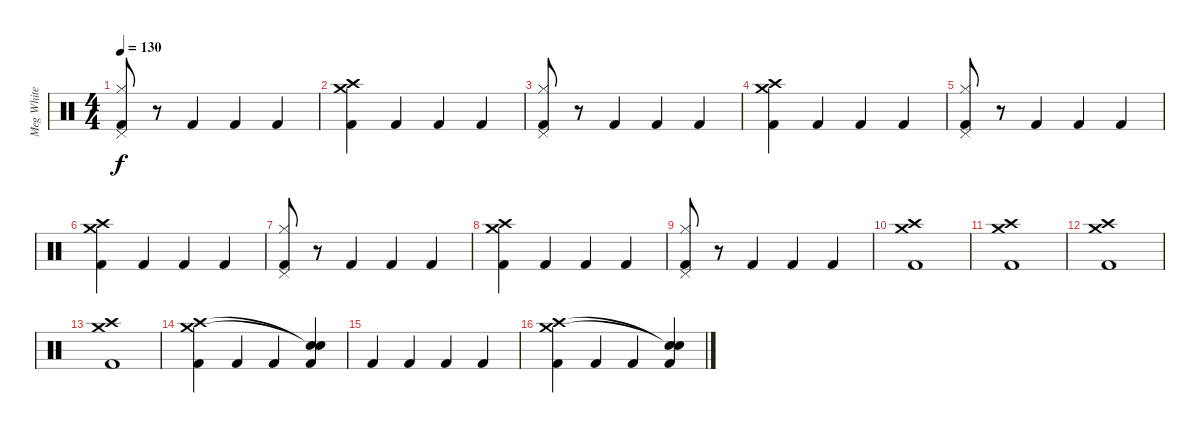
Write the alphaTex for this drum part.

\track ("Meg White" "Meg White") {instrument percussion}
\staff {score}
\articulation defaults
\ts (4 4)
\tempo 130
\clef neutral
\ks c
("Kick (hit) 2" "Hi-Hat (closed)" "Pedal Hi-Hat (hit)").8{dy f} r.8 "Kick (hit) 2".4 "Kick (hit) 2".4 "Kick (hit) 2".4 |
("Kick (hit) 2" "Crash high (hit)" "Crash medium (hit)").4 "Kick (hit) 2".4 "Kick (hit) 2".4 "Kick (hit) 2".4 |
("Kick (hit) 2" "Hi-Hat (closed)" "Pedal Hi-Hat (hit)").8 r.8 "Kick (hit) 2".4 "Kick (hit) 2".4 "Kick (hit) 2".4 |
("Kick (hit) 2" "Crash high (hit)" "Crash medium (hit)").4 "Kick (hit) 2".4 "Kick (hit) 2".4 "Kick (hit) 2".4 |
("Kick (hit) 2" "Hi-Hat (closed)" "Pedal Hi-Hat (hit)").8 r.8 "Kick (hit) 2".4 "Kick (hit) 2".4 "Kick (hit) 2".4 |
("Kick (hit) 2" "Crash high (hit)" "Crash medium (hit)").4 "Kick (hit) 2".4 "Kick (hit) 2".4 "Kick (hit) 2".4 |
("Kick (hit) 2" "Hi-Hat (closed)" "Pedal Hi-Hat (hit)").8 r.8 "Kick (hit) 2".4 "Kick (hit) 2".4 "Kick (hit) 2".4 |
("Kick (hit) 2" "Crash high (hit)" "Crash medium (hit)").4 "Kick (hit) 2".4 "Kick (hit) 2".4 "Kick (hit) 2".4 |
("Kick (hit) 2" "Hi-Hat (closed)" "Pedal Hi-Hat (hit)").8 r.8 "Kick (hit) 2".4 "Kick (hit) 2".4 "Kick (hit) 2".4 |
("Kick (hit) 2" "Crash high (hit)" "Crash medium (hit)").1 |
("Kick (hit) 2" "Crash high (hit)" "Crash medium (hit)").1 |
("Kick (hit) 2" "Crash high (hit)" "Crash medium (hit)").1 |
("Kick (hit) 2" "Crash high (hit)" "Crash medium (hit)").1 |
("Kick (hit) 2" "Crash high (hit)" "Crash medium (hit)").4 "Kick (hit) 2".4 "Kick (hit) 2".4 ("Kick (hit) 2" "Snare (hit)"{t} "Snare (hit)"{t}).4 |
"Kick (hit) 2".4 "Kick (hit) 2".4 "Kick (hit) 2".4 "Kick (hit) 2".4 |
("Kick (hit) 2" "Crash high (hit)" "Crash medium (hit)").4 "Kick (hit) 2".4 "Kick (hit) 2".4 ("Kick (hit) 2" "Snare (hit)"{t} "Snare (hit)"{t}).4
